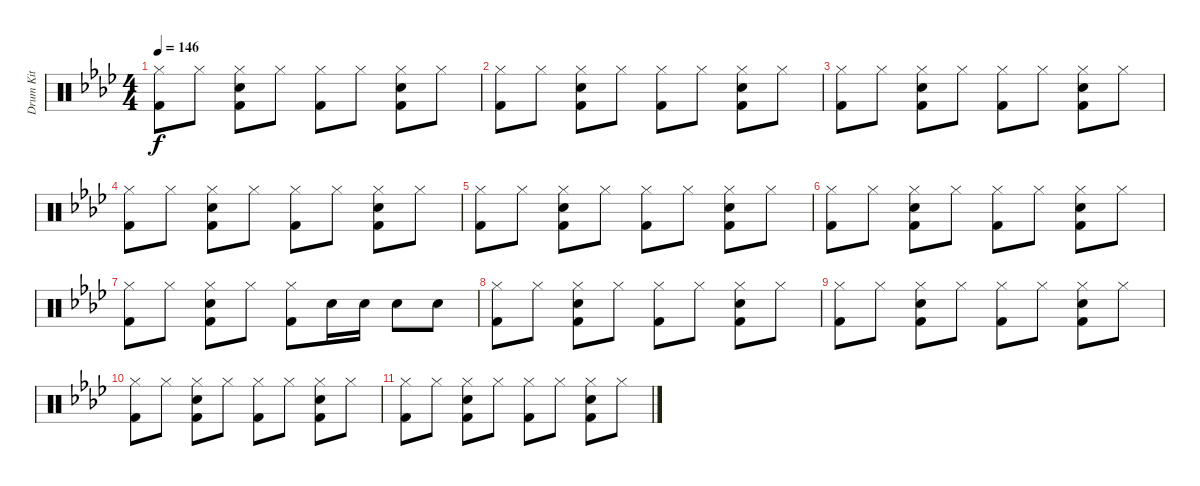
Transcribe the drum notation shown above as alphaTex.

\track ("Drum Kit" "Drum Kit") {instrument percussion}
\staff {score}
\articulation defaults
\ts (4 4)
\tempo 146
\clef neutral
\ks ab
("Hi-Hat (closed)" "Kick (hit) 2").8{dy f} "Hi-Hat (closed)".8 ("Hi-Hat (closed)" "Electric Snare (hit)" "Kick (hit) 2").8 "Hi-Hat (closed)".8 ("Hi-Hat (closed)" "Kick (hit) 2").8 "Hi-Hat (closed)".8 ("Hi-Hat (closed)" "Electric Snare (hit)" "Kick (hit) 2").8 "Hi-Hat (closed)".8 |
("Hi-Hat (closed)" "Kick (hit) 2").8 "Hi-Hat (closed)".8 ("Hi-Hat (closed)" "Electric Snare (hit)" "Kick (hit) 2").8 "Hi-Hat (closed)".8 ("Hi-Hat (closed)" "Kick (hit) 2").8 "Hi-Hat (closed)".8 ("Hi-Hat (closed)" "Electric Snare (hit)" "Kick (hit) 2").8 "Hi-Hat (closed)".8 |
("Hi-Hat (closed)" "Kick (hit) 2").8 "Hi-Hat (closed)".8 ("Hi-Hat (closed)" "Electric Snare (hit)" "Kick (hit) 2").8 "Hi-Hat (closed)".8 ("Hi-Hat (closed)" "Kick (hit) 2").8 "Hi-Hat (closed)".8 ("Hi-Hat (closed)" "Electric Snare (hit)" "Kick (hit) 2").8 "Hi-Hat (closed)".8 |
("Hi-Hat (closed)" "Kick (hit) 2").8 "Hi-Hat (closed)".8 ("Hi-Hat (closed)" "Electric Snare (hit)" "Kick (hit) 2").8 "Hi-Hat (closed)".8 ("Hi-Hat (closed)" "Kick (hit) 2").8 "Hi-Hat (closed)".8 ("Hi-Hat (closed)" "Electric Snare (hit)" "Kick (hit) 2").8 "Hi-Hat (closed)".8 |
("Hi-Hat (closed)" "Kick (hit) 2").8 "Hi-Hat (closed)".8 ("Hi-Hat (closed)" "Electric Snare (hit)" "Kick (hit) 2").8 "Hi-Hat (closed)".8 ("Hi-Hat (closed)" "Kick (hit) 2").8 "Hi-Hat (closed)".8 ("Hi-Hat (closed)" "Electric Snare (hit)" "Kick (hit) 2").8 "Hi-Hat (closed)".8 |
("Hi-Hat (closed)" "Kick (hit) 2").8 "Hi-Hat (closed)".8 ("Hi-Hat (closed)" "Electric Snare (hit)" "Kick (hit) 2").8 "Hi-Hat (closed)".8 ("Hi-Hat (closed)" "Kick (hit) 2").8 "Hi-Hat (closed)".8 ("Hi-Hat (closed)" "Electric Snare (hit)" "Kick (hit) 2").8 "Hi-Hat (closed)".8 |
("Hi-Hat (closed)" "Kick (hit) 2").8 "Hi-Hat (closed)".8 ("Hi-Hat (closed)" "Electric Snare (hit)" "Kick (hit) 2").8 "Hi-Hat (closed)".8 ("Hi-Hat (closed)" "Kick (hit) 2").8 "Electric Snare (hit)".16 "Electric Snare (hit)".16 "Electric Snare (hit)".8 "Electric Snare (hit)".8 |
("Hi-Hat (closed)" "Kick (hit) 2").8 "Hi-Hat (closed)".8 ("Hi-Hat (closed)" "Electric Snare (hit)" "Kick (hit) 2").8 "Hi-Hat (closed)".8 ("Hi-Hat (closed)" "Kick (hit) 2").8 "Hi-Hat (closed)".8 ("Hi-Hat (closed)" "Electric Snare (hit)" "Kick (hit) 2").8 "Hi-Hat (closed)".8 |
("Hi-Hat (closed)" "Kick (hit) 2").8 "Hi-Hat (closed)".8 ("Hi-Hat (closed)" "Electric Snare (hit)" "Kick (hit) 2").8 "Hi-Hat (closed)".8 ("Hi-Hat (closed)" "Kick (hit) 2").8 "Hi-Hat (closed)".8 ("Hi-Hat (closed)" "Electric Snare (hit)" "Kick (hit) 2").8 "Hi-Hat (closed)".8 |
("Hi-Hat (closed)" "Kick (hit) 2").8 "Hi-Hat (closed)".8 ("Hi-Hat (closed)" "Electric Snare (hit)" "Kick (hit) 2").8 "Hi-Hat (closed)".8 ("Hi-Hat (closed)" "Kick (hit) 2").8 "Hi-Hat (closed)".8 ("Hi-Hat (closed)" "Electric Snare (hit)" "Kick (hit) 2").8 "Hi-Hat (closed)".8 |
("Hi-Hat (closed)" "Kick (hit) 2").8 "Hi-Hat (closed)".8 ("Hi-Hat (closed)" "Electric Snare (hit)" "Kick (hit) 2").8 "Hi-Hat (closed)".8 ("Hi-Hat (closed)" "Kick (hit) 2").8 "Hi-Hat (closed)".8 ("Hi-Hat (closed)" "Electric Snare (hit)" "Kick (hit) 2").8 "Hi-Hat (closed)".8
